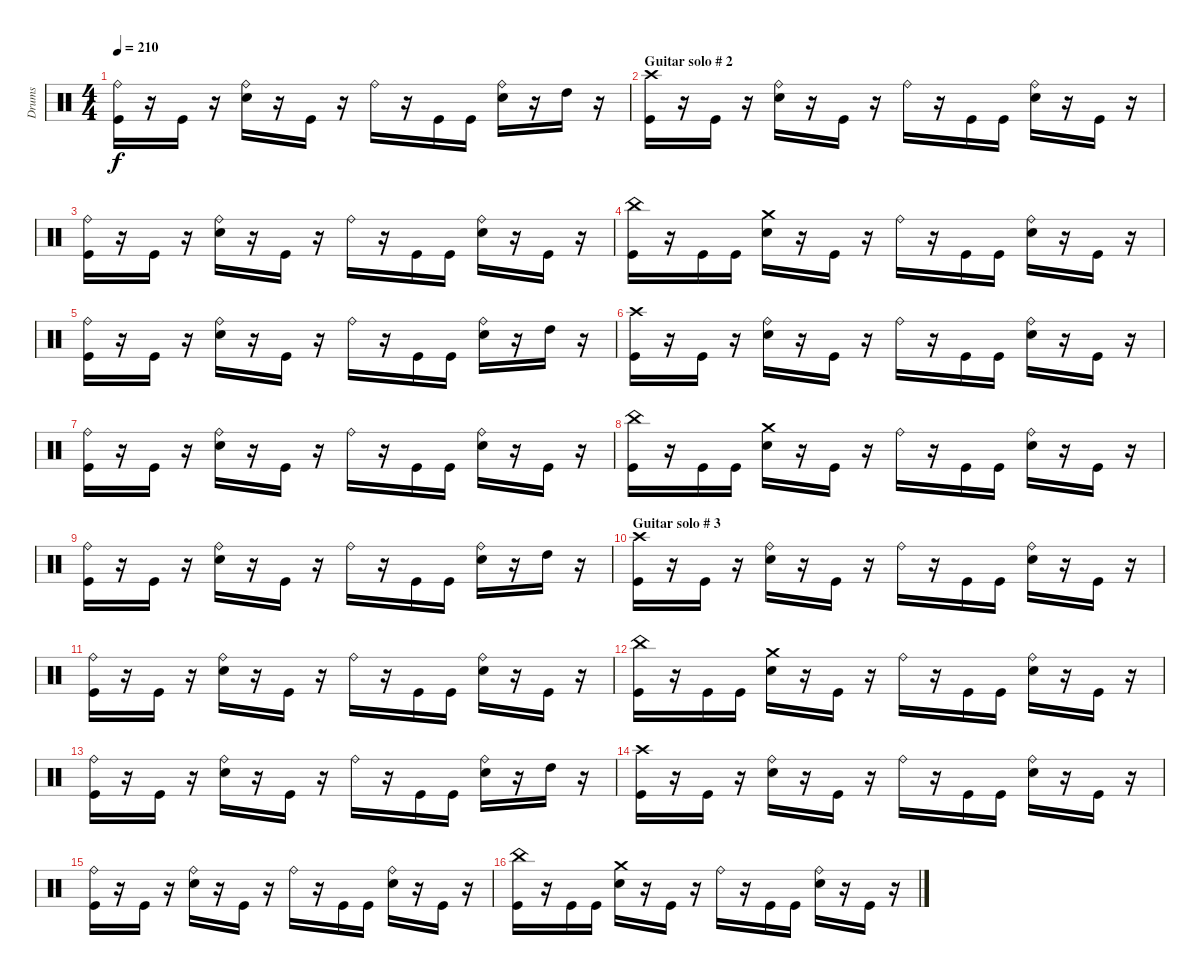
\track ("Drums" "Drums") {instrument percussion}
\staff {score}
\articulation defaults
\ts (4 4)
\tempo 210
\clef neutral
\ks c
("Ride (bell)" "Kick (hit)").16{dy f} r.16 "Kick (hit)".16 r.16 ("Ride (bell)" "Electric Snare (hit)").16 r.16 "Kick (hit)".16 r.16 "Ride (bell)".16 r.16 "Kick (hit)".16 "Kick (hit)".16 ("Ride (bell)" "Electric Snare (hit)").16 r.16 "High Tom (hit)".16 r.16 |
\section ("" "Guitar solo # 2")
("Crash high (hit)" "Kick (hit)").16 r.16 "Kick (hit)".16 r.16 ("Ride (bell)" "Electric Snare (hit)").16 r.16 "Kick (hit)".16 r.16 "Ride (bell)".16 r.16 "Kick (hit)".16 "Kick (hit)".16 ("Ride (bell)" "Electric Snare (hit)").16 r.16 "Kick (hit)".16 r.16 |
("Ride (bell)" "Kick (hit)").16 r.16 "Kick (hit)".16 r.16 ("Ride (bell)" "Electric Snare (hit)").16 r.16 "Kick (hit)".16 r.16 "Ride (bell)".16 r.16 "Kick (hit)".16 "Kick (hit)".16 ("Ride (bell)" "Electric Snare (hit)").16 r.16 "Kick (hit)".16 r.16 |
("China (hit)" "Kick (hit)").16 r.16 "Kick (hit)".16 "Kick (hit)".16 ("Crash medium (hit)" "Electric Snare (hit)").16 r.16 "Kick (hit)".16 r.16 "Ride (bell)".16 r.16 "Kick (hit)".16 "Kick (hit)".16 ("Ride (bell)" "Electric Snare (hit)").16 r.16 "Kick (hit)".16 r.16 |
("Ride (bell)" "Kick (hit)").16 r.16 "Kick (hit)".16 r.16 ("Ride (bell)" "Electric Snare (hit)").16 r.16 "Kick (hit)".16 r.16 "Ride (bell)".16 r.16 "Kick (hit)".16 "Kick (hit)".16 ("Ride (bell)" "Electric Snare (hit)").16 r.16 "High Tom (hit)".16 r.16 |
("Crash high (hit)" "Kick (hit)").16 r.16 "Kick (hit)".16 r.16 ("Ride (bell)" "Electric Snare (hit)").16 r.16 "Kick (hit)".16 r.16 "Ride (bell)".16 r.16 "Kick (hit)".16 "Kick (hit)".16 ("Ride (bell)" "Electric Snare (hit)").16 r.16 "Kick (hit)".16 r.16 |
("Ride (bell)" "Kick (hit)").16 r.16 "Kick (hit)".16 r.16 ("Ride (bell)" "Electric Snare (hit)").16 r.16 "Kick (hit)".16 r.16 "Ride (bell)".16 r.16 "Kick (hit)".16 "Kick (hit)".16 ("Ride (bell)" "Electric Snare (hit)").16 r.16 "Kick (hit)".16 r.16 |
("China (hit)" "Kick (hit)").16 r.16 "Kick (hit)".16 "Kick (hit)".16 ("Crash medium (hit)" "Electric Snare (hit)").16 r.16 "Kick (hit)".16 r.16 "Ride (bell)".16 r.16 "Kick (hit)".16 "Kick (hit)".16 ("Ride (bell)" "Electric Snare (hit)").16 r.16 "Kick (hit)".16 r.16 |
("Ride (bell)" "Kick (hit)").16 r.16 "Kick (hit)".16 r.16 ("Ride (bell)" "Electric Snare (hit)").16 r.16 "Kick (hit)".16 r.16 "Ride (bell)".16 r.16 "Kick (hit)".16 "Kick (hit)".16 ("Ride (bell)" "Electric Snare (hit)").16 r.16 "High Tom (hit)".16 r.16 |
\section ("" "Guitar solo # 3")
("Crash high (hit)" "Kick (hit)").16 r.16 "Kick (hit)".16 r.16 ("Ride (bell)" "Electric Snare (hit)").16 r.16 "Kick (hit)".16 r.16 "Ride (bell)".16 r.16 "Kick (hit)".16 "Kick (hit)".16 ("Ride (bell)" "Electric Snare (hit)").16 r.16 "Kick (hit)".16 r.16 |
("Ride (bell)" "Kick (hit)").16 r.16 "Kick (hit)".16 r.16 ("Ride (bell)" "Electric Snare (hit)").16 r.16 "Kick (hit)".16 r.16 "Ride (bell)".16 r.16 "Kick (hit)".16 "Kick (hit)".16 ("Ride (bell)" "Electric Snare (hit)").16 r.16 "Kick (hit)".16 r.16 |
("China (hit)" "Kick (hit)").16 r.16 "Kick (hit)".16 "Kick (hit)".16 ("Crash medium (hit)" "Electric Snare (hit)").16 r.16 "Kick (hit)".16 r.16 "Ride (bell)".16 r.16 "Kick (hit)".16 "Kick (hit)".16 ("Ride (bell)" "Electric Snare (hit)").16 r.16 "Kick (hit)".16 r.16 |
("Ride (bell)" "Kick (hit)").16 r.16 "Kick (hit)".16 r.16 ("Ride (bell)" "Electric Snare (hit)").16 r.16 "Kick (hit)".16 r.16 "Ride (bell)".16 r.16 "Kick (hit)".16 "Kick (hit)".16 ("Ride (bell)" "Electric Snare (hit)").16 r.16 "High Tom (hit)".16 r.16 |
("Crash high (hit)" "Kick (hit)").16 r.16 "Kick (hit)".16 r.16 ("Ride (bell)" "Electric Snare (hit)").16 r.16 "Kick (hit)".16 r.16 "Ride (bell)".16 r.16 "Kick (hit)".16 "Kick (hit)".16 ("Ride (bell)" "Electric Snare (hit)").16 r.16 "Kick (hit)".16 r.16 |
("Ride (bell)" "Kick (hit)").16 r.16 "Kick (hit)".16 r.16 ("Ride (bell)" "Electric Snare (hit)").16 r.16 "Kick (hit)".16 r.16 "Ride (bell)".16 r.16 "Kick (hit)".16 "Kick (hit)".16 ("Ride (bell)" "Electric Snare (hit)").16 r.16 "Kick (hit)".16 r.16 |
("China (hit)" "Kick (hit)").16 r.16 "Kick (hit)".16 "Kick (hit)".16 ("Crash medium (hit)" "Electric Snare (hit)").16 r.16 "Kick (hit)".16 r.16 "Ride (bell)".16 r.16 "Kick (hit)".16 "Kick (hit)".16 ("Ride (bell)" "Electric Snare (hit)").16 r.16 "Kick (hit)".16 r.16
